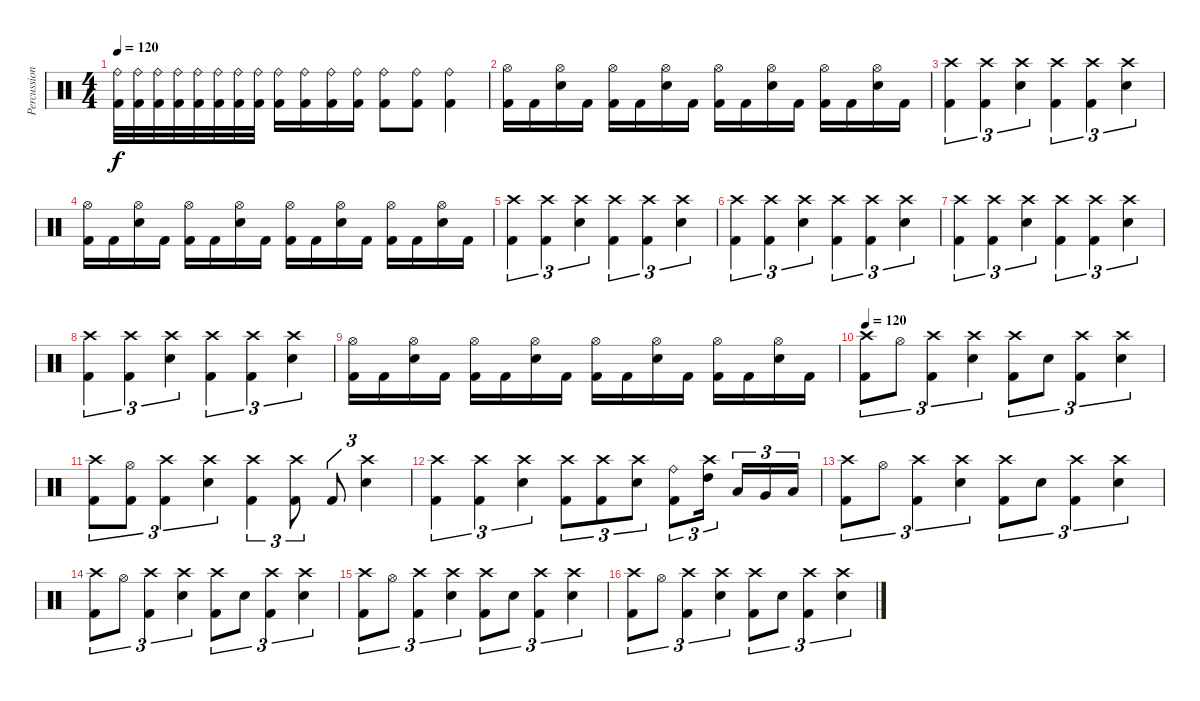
\track ("Percussions" "Percussion") {instrument percussion}
\staff {score}
\articulation defaults
\ts (4 4)
\tempo 120
\clef neutral
\ks c
("Ride (bell)" "Kick (hit) 2").32{dy f} ("Ride (bell)" "Kick (hit) 2").32 ("Ride (bell)" "Kick (hit) 2").32 ("Ride (bell)" "Kick (hit) 2").32 ("Ride (bell)" "Kick (hit) 2").32 ("Ride (bell)" "Kick (hit) 2").32 ("Ride (bell)" "Kick (hit) 2").32 ("Ride (bell)" "Kick (hit) 2").32 ("Ride (bell)" "Kick (hit) 2").16 ("Ride (bell)" "Kick (hit) 2").16 ("Ride (bell)" "Kick (hit) 2").16 ("Ride (bell)" "Kick (hit) 2").16 ("Ride (bell)" "Kick (hit) 2").8 ("Ride (bell)" "Kick (hit) 2").8 ("Ride (bell)" "Kick (hit) 2").4 |
("Hi-Hat (open)" "Kick (hit) 2").16 "Kick (hit) 2".16 ("Hi-Hat (open)" "Electric Snare (hit)").16 "Kick (hit) 2".16 ("Hi-Hat (open)" "Kick (hit) 2").16 "Kick (hit) 2".16 ("Hi-Hat (open)" "Electric Snare (hit)").16 "Kick (hit) 2".16 ("Hi-Hat (open)" "Kick (hit) 2").16 "Kick (hit) 2".16 ("Hi-Hat (open)" "Electric Snare (hit)").16 "Kick (hit) 2".16 ("Hi-Hat (open)" "Kick (hit) 2").16 "Kick (hit) 2".16 ("Hi-Hat (open)" "Electric Snare (hit)").16 "Kick (hit) 2".16 |
("Crash high (hit)" "Kick (hit) 2").4{tu (3 2)} ("Crash high (hit)" "Kick (hit) 2").4{tu (3 2)} ("Crash high (hit)" "Electric Snare (hit)").4{tu (3 2)} ("Crash high (hit)" "Kick (hit) 2").4{tu (3 2)} ("Crash high (hit)" "Kick (hit) 2").4{tu (3 2)} ("Crash high (hit)" "Electric Snare (hit)").4{tu (3 2)} |
("Hi-Hat (open)" "Kick (hit) 2").16 "Kick (hit) 2".16 ("Hi-Hat (open)" "Electric Snare (hit)").16 "Kick (hit) 2".16 ("Hi-Hat (open)" "Kick (hit) 2").16 "Kick (hit) 2".16 ("Hi-Hat (open)" "Electric Snare (hit)").16 "Kick (hit) 2".16 ("Hi-Hat (open)" "Kick (hit) 2").16 "Kick (hit) 2".16 ("Hi-Hat (open)" "Electric Snare (hit)").16 "Kick (hit) 2".16 ("Hi-Hat (open)" "Kick (hit) 2").16 "Kick (hit) 2".16 ("Hi-Hat (open)" "Electric Snare (hit)").16 "Kick (hit) 2".16 |
("Crash high (hit)" "Kick (hit) 2").4{tu (3 2)} ("Crash high (hit)" "Kick (hit) 2").4{tu (3 2)} ("Crash high (hit)" "Electric Snare (hit)").4{tu (3 2)} ("Crash high (hit)" "Kick (hit) 2").4{tu (3 2)} ("Crash high (hit)" "Kick (hit) 2").4{tu (3 2)} ("Crash high (hit)" "Electric Snare (hit)").4{tu (3 2)} |
("Crash high (hit)" "Kick (hit) 2").4{tu (3 2)} ("Crash high (hit)" "Kick (hit) 2").4{tu (3 2)} ("Crash high (hit)" "Electric Snare (hit)").4{tu (3 2)} ("Crash high (hit)" "Kick (hit) 2").4{tu (3 2)} ("Crash high (hit)" "Kick (hit) 2").4{tu (3 2)} ("Crash high (hit)" "Electric Snare (hit)").4{tu (3 2)} |
("Crash high (hit)" "Kick (hit) 2").4{tu (3 2)} ("Crash high (hit)" "Kick (hit) 2").4{tu (3 2)} ("Crash high (hit)" "Electric Snare (hit)").4{tu (3 2)} ("Crash high (hit)" "Kick (hit) 2").4{tu (3 2)} ("Crash high (hit)" "Kick (hit) 2").4{tu (3 2)} ("Crash high (hit)" "Electric Snare (hit)").4{tu (3 2)} |
("Crash high (hit)" "Kick (hit) 2").4{tu (3 2)} ("Crash high (hit)" "Kick (hit) 2").4{tu (3 2)} ("Crash high (hit)" "Electric Snare (hit)").4{tu (3 2)} ("Crash high (hit)" "Kick (hit) 2").4{tu (3 2)} ("Crash high (hit)" "Kick (hit) 2").4{tu (3 2)} ("Crash high (hit)" "Electric Snare (hit)").4{tu (3 2)} |
("Hi-Hat (open)" "Kick (hit) 2").16 "Kick (hit) 2".16 ("Hi-Hat (open)" "Electric Snare (hit)").16 "Kick (hit) 2".16 ("Hi-Hat (open)" "Kick (hit) 2").16 "Kick (hit) 2".16 ("Hi-Hat (open)" "Electric Snare (hit)").16 "Kick (hit) 2".16 ("Hi-Hat (open)" "Kick (hit) 2").16 "Kick (hit) 2".16 ("Hi-Hat (open)" "Electric Snare (hit)").16 "Kick (hit) 2".16 ("Hi-Hat (open)" "Kick (hit) 2").16 "Kick (hit) 2".16 ("Hi-Hat (open)" "Electric Snare (hit)").16 "Kick (hit) 2".16 |
\tempo 120
("Crash high (hit)" "Kick (hit) 2").8{tu (3 2)} "Hi-Hat (open)".8{tu (3 2)} ("Crash high (hit)" "Kick (hit) 2").4{tu (3 2)} ("Crash high (hit)" "Electric Snare (hit)").4{tu (3 2)} ("Crash high (hit)" "Kick (hit) 2").8{tu (3 2)} "Electric Snare (hit)".8{tu (3 2)} ("Crash high (hit)" "Kick (hit) 2").4{tu (3 2)} ("Crash high (hit)" "Electric Snare (hit)").4{tu (3 2)} |
("Crash high (hit)" "Kick (hit) 2").8{tu (3 2)} ("Hi-Hat (open)" "Kick (hit) 2").8{tu (3 2)} ("Crash high (hit)" "Kick (hit) 2").4{tu (3 2)} ("Crash high (hit)" "Electric Snare (hit)").4{tu (3 2)} ("Crash high (hit)" "Kick (hit) 2").4{tu (3 2)} ("Crash high (hit)" "Kick (hit) 2").8{tu (3 2)} "Kick (hit) 2".8{tu (3 2)} ("Crash high (hit)" "Electric Snare (hit)").4{tu (3 2)} |
("Crash high (hit)" "Kick (hit) 2").4{tu (3 2)} ("Crash high (hit)" "Kick (hit) 2").4{tu (3 2)} ("Crash high (hit)" "Electric Snare (hit)").4{tu (3 2)} ("Crash high (hit)" "Kick (hit) 2").8{tu (3 2)} ("Crash high (hit)" "Kick (hit) 2").8{tu (3 2)} ("Crash high (hit)" "Electric Snare (hit)").8{tu (3 2)} ("Ride (bell)" "Kick (hit) 2").8{tu (3 2)} ("Crash high (hit)" "High Tom (hit)").16{tu (3 2)} "Low Tom (hit)".16{tu (3 2)} "Very Low Tom (hit)".16{tu (3 2)} "Low Floor Tom (hit)".16{tu (3 2)} |
("Crash high (hit)" "Kick (hit) 2").8{tu (3 2)} "Hi-Hat (open)".8{tu (3 2)} ("Crash high (hit)" "Kick (hit) 2").4{tu (3 2)} ("Crash high (hit)" "Electric Snare (hit)").4{tu (3 2)} ("Crash high (hit)" "Kick (hit) 2").8{tu (3 2)} "Electric Snare (hit)".8{tu (3 2)} ("Crash high (hit)" "Kick (hit) 2").4{tu (3 2)} ("Crash high (hit)" "Electric Snare (hit)").4{tu (3 2)} |
("Crash high (hit)" "Kick (hit) 2").8{tu (3 2)} "Hi-Hat (open)".8{tu (3 2)} ("Crash high (hit)" "Kick (hit) 2").4{tu (3 2)} ("Crash high (hit)" "Electric Snare (hit)").4{tu (3 2)} ("Crash high (hit)" "Kick (hit) 2").8{tu (3 2)} "Electric Snare (hit)".8{tu (3 2)} ("Crash high (hit)" "Kick (hit) 2").4{tu (3 2)} ("Crash high (hit)" "Electric Snare (hit)").4{tu (3 2)} |
("Crash high (hit)" "Kick (hit) 2").8{tu (3 2)} "Hi-Hat (open)".8{tu (3 2)} ("Crash high (hit)" "Kick (hit) 2").4{tu (3 2)} ("Crash high (hit)" "Electric Snare (hit)").4{tu (3 2)} ("Crash high (hit)" "Kick (hit) 2").8{tu (3 2)} "Electric Snare (hit)".8{tu (3 2)} ("Crash high (hit)" "Kick (hit) 2").4{tu (3 2)} ("Crash high (hit)" "Electric Snare (hit)").4{tu (3 2)} |
("Crash high (hit)" "Kick (hit) 2").8{tu (3 2)} "Hi-Hat (open)".8{tu (3 2)} ("Crash high (hit)" "Kick (hit) 2").4{tu (3 2)} ("Crash high (hit)" "Electric Snare (hit)").4{tu (3 2)} ("Crash high (hit)" "Kick (hit) 2").8{tu (3 2)} "Electric Snare (hit)".8{tu (3 2)} ("Crash high (hit)" "Kick (hit) 2").4{tu (3 2)} ("Crash high (hit)" "Electric Snare (hit)").4{tu (3 2)}
